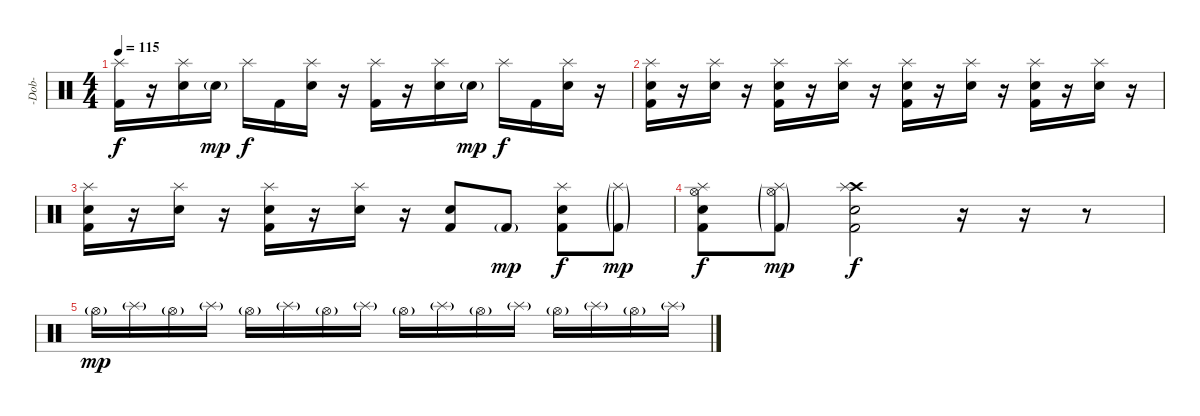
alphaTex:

\track ("-Dob-" "-Dob-") {instrument percussion}
\staff {score}
\articulation defaults
\ts (4 4)
\tempo 115
\clef neutral
\ks c
("Splash (hit)" "Kick (hit) 2").16{dy f} r.16 ("Splash (hit)" "Snare (hit) 2").16 "Snare (hit) 2"{g}.16{dy mp} "Splash (hit)".16{dy f} "Kick (hit) 2".16 ("Splash (hit)" "Snare (hit) 2").16 r.16 ("Splash (hit)" "Kick (hit) 2").16 r.16 ("Splash (hit)" "Snare (hit) 2").16 "Snare (hit) 2"{g}.16{dy mp} "Splash (hit)".16{dy f} "Kick (hit) 2".16 ("Splash (hit)" "Snare (hit) 2").16 r.16 |
("Splash (hit)" "Snare (hit) 2" "Kick (hit) 2").16 r.16 ("Splash (hit)" "Snare (hit) 2").16 r.16 ("Splash (hit)" "Snare (hit) 2" "Kick (hit) 2").16 r.16 ("Splash (hit)" "Snare (hit) 2").16 r.16 ("Splash (hit)" "Snare (hit) 2" "Kick (hit) 2").16 r.16 ("Splash (hit)" "Snare (hit) 2").16 r.16 ("Splash (hit)" "Snare (hit) 2" "Kick (hit) 2").16 r.16 ("Splash (hit)" "Snare (hit) 2").16 r.16 |
("Splash (hit)" "Snare (hit) 2" "Kick (hit) 2").16 r.16 ("Splash (hit)" "Snare (hit) 2").16 r.16 ("Splash (hit)" "Snare (hit) 2" "Kick (hit) 2").16 r.16 ("Splash (hit)" "Snare (hit) 2").16 r.16 ("Snare (hit) 2" "Kick (hit) 2").8 "Kick (hit) 2"{g}.8{dy mp} ("Splash (hit)" "Snare (hit) 2" "Kick (hit) 2").8{dy f} ("Splash (hit)"{g} "Kick (hit) 2"{g}).8{dy mp} |
("Hi-Hat (open)" "Splash (hit)" "Snare (hit) 2" "Kick (hit) 2").8{dy f} ("Hi-Hat (open)"{g} "Splash (hit)"{g} "Kick (hit) 2"{g}).8{dy mp} ("Crash high (hit)" "Splash (hit)" "Snare (hit) 2" "Kick (hit) 2").2{dy f volume 10} r.16 r.16 r.8 |
"Hi-Hat (open)"{g}.16{dy mp volume 6} "Splash (hit)"{g}.16 "Hi-Hat (open)"{g}.16 "Splash (hit)"{g}.16 "Hi-Hat (open)"{g}.16 "Splash (hit)"{g}.16 "Hi-Hat (open)"{g}.16 "Splash (hit)"{g}.16 "Hi-Hat (open)"{g}.16 "Splash (hit)"{g}.16 "Hi-Hat (open)"{g}.16 "Splash (hit)"{g}.16 "Hi-Hat (open)"{g}.16 "Splash (hit)"{g}.16 "Hi-Hat (open)"{g}.16 "Splash (hit)"{g}.16
